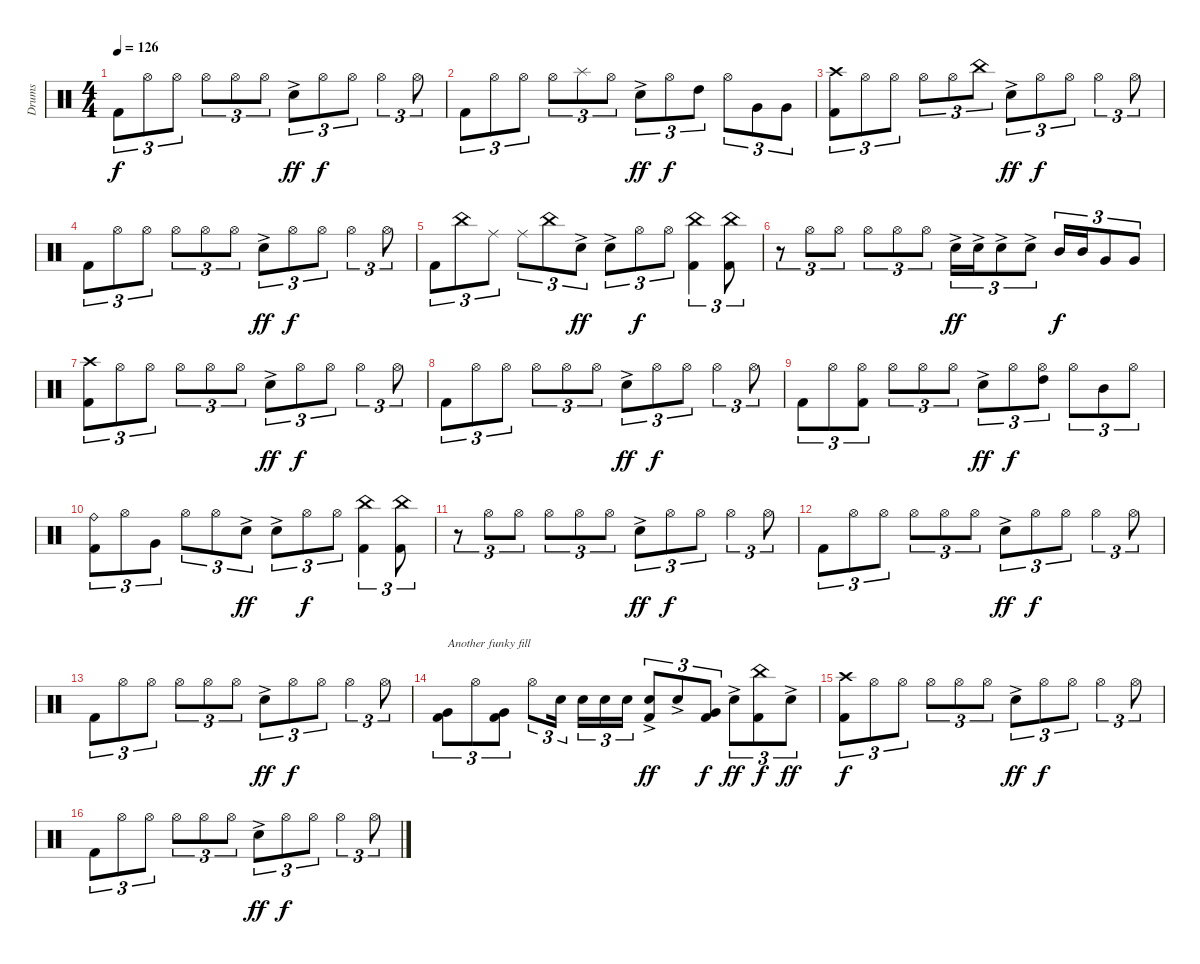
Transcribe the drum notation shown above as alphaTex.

\track ("Drums" "Drums") {instrument percussion}
\staff {score}
\articulation defaults
\ts (4 4)
\tempo 126
\clef neutral
\ks c "Kick (hit) 2".8{tu (3 2) dy f} "Hi-Hat (open)".8{tu (3 2)} "Hi-Hat (open)".8{tu (3 2)} "Hi-Hat (open)".8{tu (3 2)} "Hi-Hat (open)".8{tu (3 2)} "Hi-Hat (open)".8{tu (3 2)} "Electric Snare (hit)"{ac}.8{tu (3 2) dy ff} "Hi-Hat (open)".8{tu (3 2) dy f} "Hi-Hat (open)".8{tu (3 2)} "Hi-Hat (open)".4{tu (3 2)} "Hi-Hat (open)".8{tu (3 2)}
|
"Kick (hit) 2".8{tu (3 2)} "Hi-Hat (open)".8{tu (3 2)} "Hi-Hat (open)".8{tu (3 2)} "Hi-Hat (open)".8{tu (3 2)} "Splash (hit)".8{tu (3 2)} "Hi-Hat (open)".8{tu (3 2)} "Electric Snare (hit)"{ac}.8{tu (3 2) dy ff} "Hi-Hat (open)".8{tu (3 2) dy f} "High Tom (hit)".8{tu (3 2)} "Hi-Hat (open)".8{tu (3 2)} "Very Low Tom (hit)".8{tu (3 2)} "Very Low Tom (hit)".8{tu (3 2)} |
("Crash high (hit)" "Kick (hit) 2").8{tu (3 2)} "Hi-Hat (open)".8{tu (3 2)} "Hi-Hat (open)".8{tu (3 2)} "Hi-Hat (open)".8{tu (3 2)} "Hi-Hat (open)".8{tu (3 2)} "China (hit)".8{tu (3 2)} "Electric Snare (hit)"{ac}.8{tu (3 2) dy ff} "Hi-Hat (open)".8{tu (3 2) dy f} "Hi-Hat (open)".8{tu (3 2)} "Hi-Hat (open)".4{tu (3 2)} "Hi-Hat (open)".8{tu (3 2)} |
"Kick (hit) 2".8{tu (3 2)} "Hi-Hat (open)".8{tu (3 2)} "Hi-Hat (open)".8{tu (3 2)} "Hi-Hat (open)".8{tu (3 2)} "Hi-Hat (open)".8{tu (3 2)} "Hi-Hat (open)".8{tu (3 2)} "Electric Snare (hit)"{ac}.8{tu (3 2) dy ff} "Hi-Hat (open)".8{tu (3 2) dy f} "Hi-Hat (open)".8{tu (3 2)} "Hi-Hat (open)".4{tu (3 2)} "Hi-Hat (open)".8{tu (3 2)} |
"Kick (hit) 2".8{tu (3 2)} "China (hit)".8{tu (3 2)} "Ride (middle)".8{tu (3 2)} "Ride (middle)".8{tu (3 2)} "China (hit)".8{tu (3 2)} "Electric Snare (hit)"{ac}.8{tu (3 2) dy ff} "Electric Snare (hit)"{ac}.8{tu (3 2)} "Hi-Hat (open)".8{tu (3 2) dy f} "Hi-Hat (open)".8{tu (3 2)} ("China (hit)" "Kick (hit) 2").4{tu (3 2)} ("China (hit)" "Kick (hit) 2").8{tu (3 2)} |
r.8{tu (3 2)} "Hi-Hat (open)".8{tu (3 2)} "Hi-Hat (open)".8{tu (3 2)} "Hi-Hat (open)".8{tu (3 2)} "Hi-Hat (open)".8{tu (3 2)} "Hi-Hat (open)".8{tu (3 2)} "Electric Snare (hit)"{ac}.16{tu (3 2) dy ff} "Electric Snare (hit)"{ac}.16{tu (3 2)} "Electric Snare (hit)"{ac}.8{tu (3 2)} "Electric Snare (hit)"{ac}.8{tu (3 2)} "Mid Tom (hit)".16{tu (3 2) dy f} "Mid Tom (hit)".16{tu (3 2)} "Very Low Tom (hit)".8{tu (3 2)} "Very Low Tom (hit)".8{tu (3 2)} |
("Crash high (hit)" "Kick (hit) 2").8{tu (3 2)} "Hi-Hat (open)".8{tu (3 2)} "Hi-Hat (open)".8{tu (3 2)} "Hi-Hat (open)".8{tu (3 2)} "Hi-Hat (open)".8{tu (3 2)} "Hi-Hat (open)".8{tu (3 2)} "Electric Snare (hit)"{ac}.8{tu (3 2) dy ff} "Hi-Hat (open)".8{tu (3 2) dy f} "Hi-Hat (open)".8{tu (3 2)} "Hi-Hat (open)".4{tu (3 2)} "Hi-Hat (open)".8{tu (3 2)} |
"Kick (hit) 2".8{tu (3 2)} "Hi-Hat (open)".8{tu (3 2)} "Hi-Hat (open)".8{tu (3 2)} "Hi-Hat (open)".8{tu (3 2)} "Hi-Hat (open)".8{tu (3 2)} "Hi-Hat (open)".8{tu (3 2)} "Electric Snare (hit)"{ac}.8{tu (3 2) dy ff} "Hi-Hat (open)".8{tu (3 2) dy f} "Hi-Hat (open)".8{tu (3 2)} "Hi-Hat (open)".4{tu (3 2)} "Hi-Hat (open)".8{tu (3 2)} |
"Kick (hit) 2".8{tu (3 2)} "Hi-Hat (open)".8{tu (3 2)} ("Hi-Hat (open)" "Kick (hit) 2").8{tu (3 2)} "Hi-Hat (open)".8{tu (3 2)} "Hi-Hat (open)".8{tu (3 2)} "Hi-Hat (open)".8{tu (3 2)} "Electric Snare (hit)"{ac}.8{tu (3 2) dy ff} "Hi-Hat (open)".8{tu (3 2) dy f} ("Hi-Hat (open)" "High Tom (hit)").8{tu (3 2)} "Hi-Hat (open)".8{tu (3 2)} "Mid Tom (hit)".8{tu (3 2)} "Hi-Hat (open)".8{tu (3 2)} |
("Ride (bell)" "Kick (hit) 2").8{tu (3 2)} "Hi-Hat (open)".8{tu (3 2)} "Very Low Tom (hit)".8{tu (3 2)} "Hi-Hat (open)".8{tu (3 2)} "Hi-Hat (open)".8{tu (3 2)} "Electric Snare (hit)"{ac}.8{tu (3 2) dy ff} "Electric Snare (hit)"{ac}.8{tu (3 2)} "Hi-Hat (open)".8{tu (3 2) dy f} "Hi-Hat (open)".8{tu (3 2)} ("China (hit)" "Kick (hit) 2").4{tu (3 2)} ("China (hit)" "Kick (hit) 2").8{tu (3 2)} |
r.8{tu (3 2)} "Hi-Hat (open)".8{tu (3 2)} "Hi-Hat (open)".8{tu (3 2)} "Hi-Hat (open)".8{tu (3 2)} "Hi-Hat (open)".8{tu (3 2)} "Hi-Hat (open)".8{tu (3 2)} "Electric Snare (hit)"{ac}.8{tu (3 2) dy ff} "Hi-Hat (open)".8{tu (3 2) dy f} "Hi-Hat (open)".8{tu (3 2)} "Hi-Hat (open)".4{tu (3 2)} "Hi-Hat (open)".8{tu (3 2)} |
"Kick (hit) 2".8{tu (3 2)} "Hi-Hat (open)".8{tu (3 2)} "Hi-Hat (open)".8{tu (3 2)} "Hi-Hat (open)".8{tu (3 2)} "Hi-Hat (open)".8{tu (3 2)} "Hi-Hat (open)".8{tu (3 2)} "Electric Snare (hit)"{ac}.8{tu (3 2) dy ff} "Hi-Hat (open)".8{tu (3 2) dy f} "Hi-Hat (open)".8{tu (3 2)} "Hi-Hat (open)".4{tu (3 2)} "Hi-Hat (open)".8{tu (3 2)} |
"Kick (hit) 2".8{tu (3 2)} "Hi-Hat (open)".8{tu (3 2)} "Hi-Hat (open)".8{tu (3 2)} "Hi-Hat (open)".8{tu (3 2)} "Hi-Hat (open)".8{tu (3 2)} "Hi-Hat (open)".8{tu (3 2)} "Electric Snare (hit)"{ac}.8{tu (3 2) dy ff} "Hi-Hat (open)".8{tu (3 2) dy f} "Hi-Hat (open)".8{tu (3 2)} "Hi-Hat (open)".4{tu (3 2)} "Hi-Hat (open)".8{tu (3 2)} |
("Very Low Tom (hit)" "Kick (hit) 2").8{tu (3 2) txt "Another funky fill"} "Hi-Hat (open)".8{tu (3 2)} ("Very Low Tom (hit)" "Kick (hit) 2").8{tu (3 2)} "Hi-Hat (open)".8{tu (3 2)} "Electric Snare (hit)".16{tu (3 2) beam splitsecondary} "Electric Snare (hit)".16{tu (3 2)} "Electric Snare (hit)".16{tu (3 2)} "Electric Snare (hit)".16{tu (3 2)} ("Electric Snare (hit)"{ac} "Kick (hit) 2").8{tu (3 2) dy ff} "Electric Snare (hit)"{ac}.8{tu (3 2)} ("Very Low Tom (hit)" "Kick (hit) 2").8{tu (3 2) dy f} "Electric Snare (hit)"{ac}.8{tu (3 2) dy ff} ("China (hit)" "Kick (hit) 2").8{tu (3 2) dy f} "Electric Snare (hit)"{ac}.8{tu (3 2) dy ff} |
("Crash high (hit)" "Kick (hit) 2").8{tu (3 2) dy f} "Hi-Hat (open)".8{tu (3 2)} "Hi-Hat (open)".8{tu (3 2)} "Hi-Hat (open)".8{tu (3 2)} "Hi-Hat (open)".8{tu (3 2)} "Hi-Hat (open)".8{tu (3 2)} "Electric Snare (hit)"{ac}.8{tu (3 2) dy ff} "Hi-Hat (open)".8{tu (3 2) dy f} "Hi-Hat (open)".8{tu (3 2)} "Hi-Hat (open)".4{tu (3 2)} "Hi-Hat (open)".8{tu (3 2)} |
"Kick (hit) 2".8{tu (3 2)} "Hi-Hat (open)".8{tu (3 2)} "Hi-Hat (open)".8{tu (3 2)} "Hi-Hat (open)".8{tu (3 2)} "Hi-Hat (open)".8{tu (3 2)} "Hi-Hat (open)".8{tu (3 2)} "Electric Snare (hit)"{ac}.8{tu (3 2) dy ff} "Hi-Hat (open)".8{tu (3 2) dy f} "Hi-Hat (open)".8{tu (3 2)} "Hi-Hat (open)".4{tu (3 2)} "Hi-Hat (open)".8{tu (3 2)}
